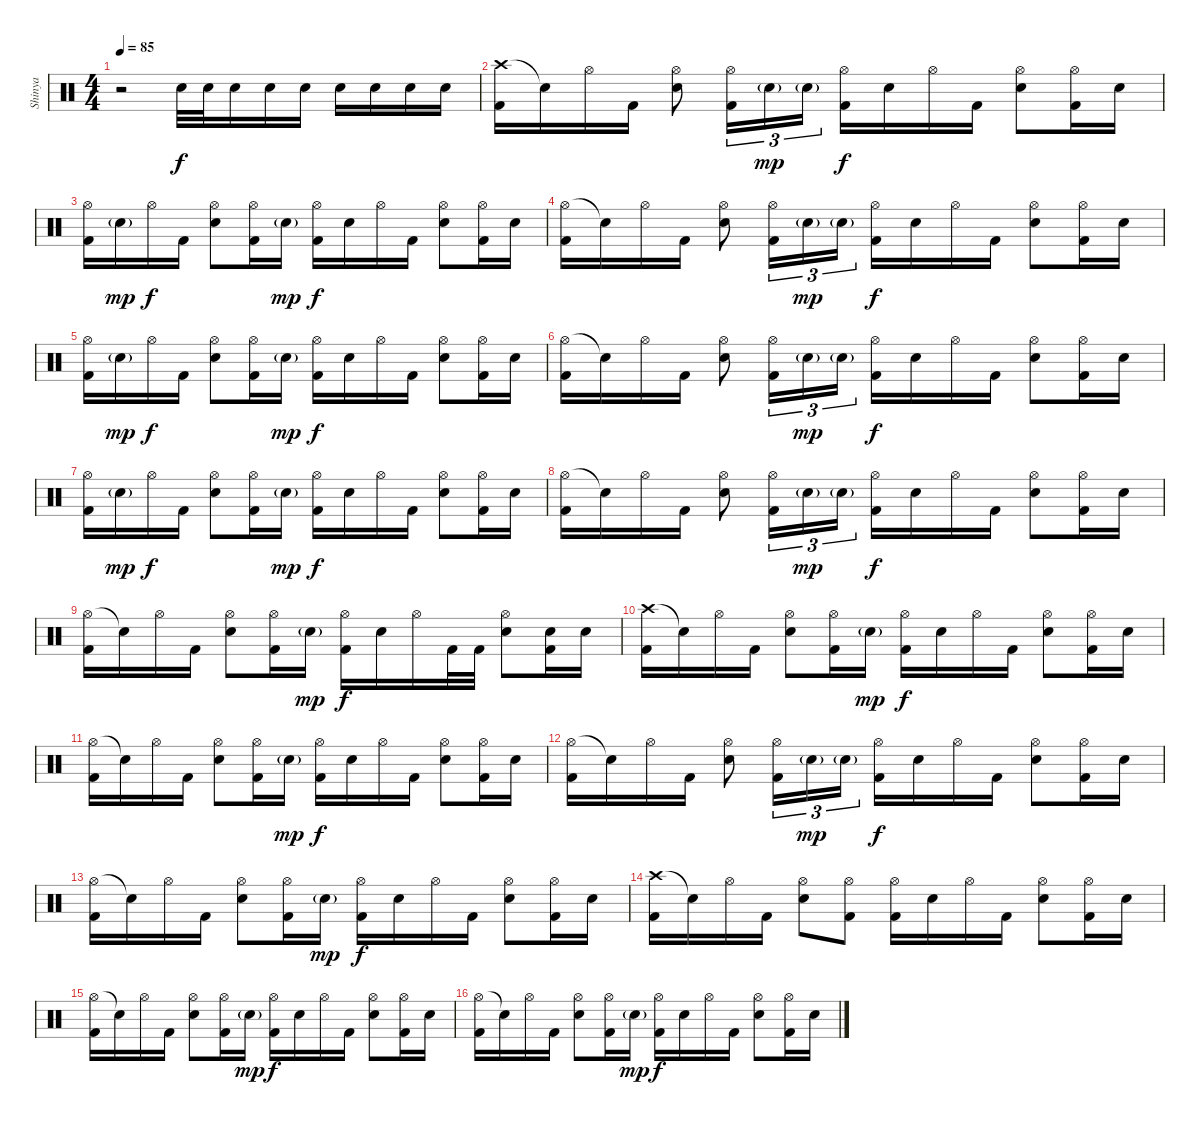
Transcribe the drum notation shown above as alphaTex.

\track ("Shinya" "Shinya") {instrument percussion}
\staff {score}
\articulation defaults
\ts (4 4)
\tempo 85
\clef neutral
\ks c
r.2{dy f} "Electric Snare (hit)".32 "Electric Snare (hit)".32 "Electric Snare (hit)".16 "Electric Snare (hit)".16 "Electric Snare (hit)".16 "Electric Snare (hit)".16 "Electric Snare (hit)".16 "Electric Snare (hit)".16 "Electric Snare (hit)".16 |
("Crash high (hit)" "Kick (hit) 2").16 "Snare (hit)"{t}.16 "Hi-Hat (open)".16 "Kick (hit) 2".16 ("Hi-Hat (open)" "Electric Snare (hit)").8 ("Hi-Hat (open)" "Kick (hit) 2").16{tu (3 2)} "Electric Snare (hit)"{g}.16{tu (3 2) dy mp} "Electric Snare (hit)"{g}.16{tu (3 2)} ("Hi-Hat (open)" "Kick (hit) 2").16{dy f} "Electric Snare (hit)".16 "Hi-Hat (open)".16 "Kick (hit) 2".16 ("Hi-Hat (open)" "Electric Snare (hit)").8 ("Hi-Hat (open)" "Kick (hit) 2").16 "Electric Snare (hit)".16 |
("Hi-Hat (open)" "Kick (hit) 2").16 "Electric Snare (hit)"{g}.16{dy mp} "Hi-Hat (open)".16{dy f} "Kick (hit) 2".16 ("Hi-Hat (open)" "Electric Snare (hit)").8 ("Hi-Hat (open)" "Kick (hit) 2").16 "Electric Snare (hit)"{g}.16{dy mp} ("Hi-Hat (open)" "Kick (hit) 2").16{dy f} "Electric Snare (hit)".16 "Hi-Hat (open)".16 "Kick (hit) 2".16 ("Hi-Hat (open)" "Electric Snare (hit)").8 ("Hi-Hat (open)" "Kick (hit) 2").16 "Electric Snare (hit)".16 |
("Hi-Hat (open)" "Kick (hit) 2").16 "Snare (hit)"{t}.16 "Hi-Hat (open)".16 "Kick (hit) 2".16 ("Hi-Hat (open)" "Electric Snare (hit)").8 ("Hi-Hat (open)" "Kick (hit) 2").16{tu (3 2)} "Electric Snare (hit)"{g}.16{tu (3 2) dy mp} "Electric Snare (hit)"{g}.16{tu (3 2)} ("Hi-Hat (open)" "Kick (hit) 2").16{dy f} "Electric Snare (hit)".16 "Hi-Hat (open)".16 "Kick (hit) 2".16 ("Hi-Hat (open)" "Electric Snare (hit)").8 ("Hi-Hat (open)" "Kick (hit) 2").16 "Electric Snare (hit)".16 |
("Hi-Hat (open)" "Kick (hit) 2").16 "Electric Snare (hit)"{g}.16{dy mp} "Hi-Hat (open)".16{dy f} "Kick (hit) 2".16 ("Hi-Hat (open)" "Electric Snare (hit)").8 ("Hi-Hat (open)" "Kick (hit) 2").16 "Electric Snare (hit)"{g}.16{dy mp} ("Hi-Hat (open)" "Kick (hit) 2").16{dy f} "Electric Snare (hit)".16 "Hi-Hat (open)".16 "Kick (hit) 2".16 ("Hi-Hat (open)" "Electric Snare (hit)").8 ("Hi-Hat (open)" "Kick (hit) 2").16 "Electric Snare (hit)".16 |
("Hi-Hat (open)" "Kick (hit) 2").16 "Snare (hit)"{t}.16 "Hi-Hat (open)".16 "Kick (hit) 2".16 ("Hi-Hat (open)" "Electric Snare (hit)").8 ("Hi-Hat (open)" "Kick (hit) 2").16{tu (3 2)} "Electric Snare (hit)"{g}.16{tu (3 2) dy mp} "Electric Snare (hit)"{g}.16{tu (3 2)} ("Hi-Hat (open)" "Kick (hit) 2").16{dy f} "Electric Snare (hit)".16 "Hi-Hat (open)".16 "Kick (hit) 2".16 ("Hi-Hat (open)" "Electric Snare (hit)").8 ("Hi-Hat (open)" "Kick (hit) 2").16 "Electric Snare (hit)".16 |
("Hi-Hat (open)" "Kick (hit) 2").16 "Electric Snare (hit)"{g}.16{dy mp} "Hi-Hat (open)".16{dy f} "Kick (hit) 2".16 ("Hi-Hat (open)" "Electric Snare (hit)").8 ("Hi-Hat (open)" "Kick (hit) 2").16 "Electric Snare (hit)"{g}.16{dy mp} ("Hi-Hat (open)" "Kick (hit) 2").16{dy f} "Electric Snare (hit)".16 "Hi-Hat (open)".16 "Kick (hit) 2".16 ("Hi-Hat (open)" "Electric Snare (hit)").8 ("Hi-Hat (open)" "Kick (hit) 2").16 "Electric Snare (hit)".16 |
("Hi-Hat (open)" "Kick (hit) 2").16 "Snare (hit)"{t}.16 "Hi-Hat (open)".16 "Kick (hit) 2".16 ("Hi-Hat (open)" "Electric Snare (hit)").8 ("Hi-Hat (open)" "Kick (hit) 2").16{tu (3 2)} "Electric Snare (hit)"{g}.16{tu (3 2) dy mp} "Electric Snare (hit)"{g}.16{tu (3 2)} ("Hi-Hat (open)" "Kick (hit) 2").16{dy f} "Electric Snare (hit)".16 "Hi-Hat (open)".16 "Kick (hit) 2".16 ("Hi-Hat (open)" "Electric Snare (hit)").8 ("Hi-Hat (open)" "Kick (hit) 2").16 "Electric Snare (hit)".16 |
("Hi-Hat (open)" "Kick (hit) 2").16 "Snare (hit)"{t}.16 "Hi-Hat (open)".16 "Kick (hit) 2".16 ("Hi-Hat (open)" "Electric Snare (hit)").8 ("Hi-Hat (open)" "Kick (hit) 2").16 "Electric Snare (hit)"{g}.16{dy mp} ("Hi-Hat (open)" "Kick (hit) 2").16{dy f} "Electric Snare (hit)".16 "Hi-Hat (open)".16 "Kick (hit) 2".32 "Kick (hit) 2".32 ("Hi-Hat (open)" "Electric Snare (hit)").8 ("Electric Snare (hit)" "Kick (hit) 2").16 "Electric Snare (hit)".16 |
("Crash high (hit)" "Kick (hit) 2").16 "Snare (hit)"{t}.16 "Hi-Hat (open)".16 "Kick (hit) 2".16 ("Hi-Hat (open)" "Electric Snare (hit)").8 ("Hi-Hat (open)" "Kick (hit) 2").16 "Electric Snare (hit)"{g}.16{dy mp} ("Hi-Hat (open)" "Kick (hit) 2").16{dy f} "Electric Snare (hit)".16 "Hi-Hat (open)".16 "Kick (hit) 2".16 ("Hi-Hat (open)" "Electric Snare (hit)").8 ("Hi-Hat (open)" "Kick (hit) 2").16 "Electric Snare (hit)".16 |
("Hi-Hat (open)" "Kick (hit) 2").16 "Snare (hit)"{t}.16 "Hi-Hat (open)".16 "Kick (hit) 2".16 ("Hi-Hat (open)" "Electric Snare (hit)").8 ("Hi-Hat (open)" "Kick (hit) 2").16 "Electric Snare (hit)"{g}.16{dy mp} ("Hi-Hat (open)" "Kick (hit) 2").16{dy f} "Electric Snare (hit)".16 "Hi-Hat (open)".16 "Kick (hit) 2".16 ("Hi-Hat (open)" "Electric Snare (hit)").8 ("Hi-Hat (open)" "Kick (hit) 2").16 "Electric Snare (hit)".16 |
("Hi-Hat (open)" "Kick (hit) 2").16 "Snare (hit)"{t}.16 "Hi-Hat (open)".16 "Kick (hit) 2".16 ("Hi-Hat (open)" "Electric Snare (hit)").8 ("Hi-Hat (open)" "Kick (hit) 2").16{tu (3 2)} "Electric Snare (hit)"{g}.16{tu (3 2) dy mp} "Electric Snare (hit)"{g}.16{tu (3 2)} ("Hi-Hat (open)" "Kick (hit) 2").16{dy f} "Electric Snare (hit)".16 "Hi-Hat (open)".16 "Kick (hit) 2".16 ("Hi-Hat (open)" "Electric Snare (hit)").8 ("Hi-Hat (open)" "Kick (hit) 2").16 "Electric Snare (hit)".16 |
("Hi-Hat (open)" "Kick (hit) 2").16 "Snare (hit)"{t}.16 "Hi-Hat (open)".16 "Kick (hit) 2".16 ("Hi-Hat (open)" "Electric Snare (hit)").8 ("Hi-Hat (open)" "Kick (hit) 2").16 "Electric Snare (hit)"{g}.16{dy mp} ("Hi-Hat (open)" "Kick (hit) 2").16{dy f} "Electric Snare (hit)".16 "Hi-Hat (open)".16 "Kick (hit) 2".16 ("Hi-Hat (open)" "Electric Snare (hit)").8 ("Hi-Hat (open)" "Kick (hit) 2").16 "Electric Snare (hit)".16 |
("Crash high (hit)" "Kick (hit) 2").16 "Snare (hit)"{t}.16 "Hi-Hat (open)".16 "Kick (hit) 2".16 ("Hi-Hat (open)" "Electric Snare (hit)").8 ("Hi-Hat (open)" "Kick (hit) 2").8 ("Hi-Hat (open)" "Kick (hit) 2").16 "Electric Snare (hit)".16 "Hi-Hat (open)".16 "Kick (hit) 2".16 ("Hi-Hat (open)" "Electric Snare (hit)").8 ("Hi-Hat (open)" "Kick (hit) 2").16 "Electric Snare (hit)".16 |
("Hi-Hat (open)" "Kick (hit) 2").16 "Snare (hit)"{t}.16 "Hi-Hat (open)".16 "Kick (hit) 2".16 ("Hi-Hat (open)" "Electric Snare (hit)").8 ("Hi-Hat (open)" "Kick (hit) 2").16 "Electric Snare (hit)"{g}.16{dy mp} ("Hi-Hat (open)" "Kick (hit) 2").16{dy f} "Electric Snare (hit)".16 "Hi-Hat (open)".16 "Kick (hit) 2".16 ("Hi-Hat (open)" "Electric Snare (hit)").8 ("Hi-Hat (open)" "Kick (hit) 2").16 "Electric Snare (hit)".16 |
("Hi-Hat (open)" "Kick (hit) 2").16 "Snare (hit)"{t}.16 "Hi-Hat (open)".16 "Kick (hit) 2".16 ("Hi-Hat (open)" "Electric Snare (hit)").8 ("Hi-Hat (open)" "Kick (hit) 2").16 "Electric Snare (hit)"{g}.16{dy mp} ("Hi-Hat (open)" "Kick (hit) 2").16{dy f} "Electric Snare (hit)".16 "Hi-Hat (open)".16 "Kick (hit) 2".16 ("Hi-Hat (open)" "Electric Snare (hit)").8 ("Hi-Hat (open)" "Kick (hit) 2").16 "Electric Snare (hit)".16
